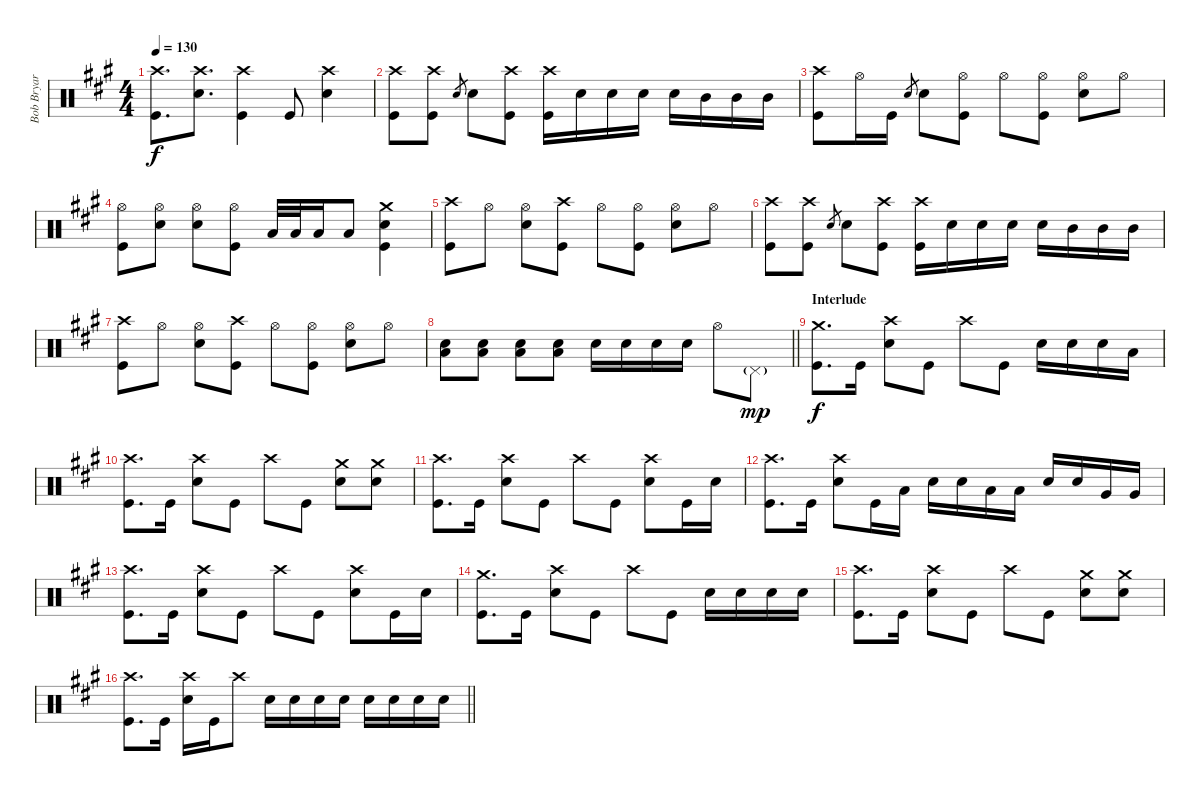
\track ("Bob Bryar" "Bob Bryar") {instrument percussion}
\staff {score}
\articulation defaults
\ts (4 4)
\tempo 130
\clef neutral
\ks a
("Crash high (hit)" "Kick (hit)").8{d dy f} ("Crash high (hit)" "Snare (hit) 2").8{d} ("Crash high (hit)" "Kick (hit)").4 "Kick (hit)".8 ("Crash high (hit)" "Snare (hit) 2").4 |
("Crash high (hit)" "Kick (hit)").8 ("Crash high (hit)" "Kick (hit)").8 "Snare (hit) 2".8{gr} "Snare (hit) 2".8 ("Crash high (hit)" "Kick (hit)").8 ("Crash high (hit)" "Kick (hit)").16 "Snare (hit) 2".16 "Snare (hit) 2".16 "Snare (hit) 2".16 "Snare (hit) 2".16 "Mid Tom (hit)".16 "Mid Tom (hit)".16 "Mid Tom (hit)".16 |
("Crash high (hit)" "Kick (hit)").8 "Hi-Hat (open)".16 "Kick (hit)".16 "Snare (hit) 2".8{gr} "Snare (hit) 2".8 ("Hi-Hat (open)" "Kick (hit)").8 "Hi-Hat (open)".8 ("Hi-Hat (open)" "Kick (hit)").8 ("Hi-Hat (open)" "Snare (hit) 2").8 "Hi-Hat (open)".8 |
("Hi-Hat (open)" "Kick (hit)").8 ("Hi-Hat (open)" "Snare (hit) 2").8 ("Hi-Hat (open)" "Snare (hit) 2").8 ("Hi-Hat (open)" "Kick (hit)").8 "Low Tom (hit)".32 "Low Tom (hit)".32 "Low Tom (hit)".16 "Low Tom (hit)".8 ("Crash medium (hit)" "Snare (hit) 2" "Kick (hit)").4 |
("Crash high (hit)" "Kick (hit)").8 "Hi-Hat (open)".8 ("Hi-Hat (open)" "Snare (hit) 2").8 ("Crash high (hit)" "Kick (hit)").8 "Hi-Hat (open)".8 ("Hi-Hat (open)" "Kick (hit)").8 ("Hi-Hat (open)" "Snare (hit) 2").8 "Hi-Hat (open)".8 |
("Crash high (hit)" "Kick (hit)").8 ("Crash high (hit)" "Kick (hit)").8 "Snare (hit) 2".8{gr} "Snare (hit) 2".8 ("Crash high (hit)" "Kick (hit)").8 ("Crash high (hit)" "Kick (hit)").16 "Snare (hit) 2".16 "Snare (hit) 2".16 "Snare (hit) 2".16 "Snare (hit) 2".16 "Mid Tom (hit)".16 "Mid Tom (hit)".16 "Mid Tom (hit)".16 |
("Crash high (hit)" "Kick (hit)").8 "Hi-Hat (open)".8 ("Hi-Hat (open)" "Snare (hit) 2").8 ("Crash high (hit)" "Kick (hit)").8 "Hi-Hat (open)".8 ("Hi-Hat (open)" "Kick (hit)").8 ("Hi-Hat (open)" "Snare (hit) 2").8 "Hi-Hat (open)".8 |
\barLineRight lightlight
("Low Floor Tom (hit)" "Snare (hit) 2").8 ("Low Floor Tom (hit)" "Snare (hit) 2").8 ("Low Floor Tom (hit)" "Snare (hit) 2").8 ("Low Floor Tom (hit)" "Snare (hit) 2").8 "Snare (hit) 2".16 "Snare (hit) 2".16 "Snare (hit) 2".16 "Snare (hit) 2".16 "Hi-Hat (open)".8 "Pedal Hi-Hat (hit)"{g}.8{dy mp} |
\section ("" "Interlude")
("Crash medium (hit)" "Kick (hit)").8{d dy f} "Kick (hit)".16 ("Crash high (hit)" "Snare (hit) 2").8 "Kick (hit)".8 "Crash high (hit)".8 "Kick (hit)".8 "Snare (hit) 2".16 "Snare (hit) 2".16 "Snare (hit) 2".16 "Low Tom (hit)".16 |
("Crash high (hit)" "Kick (hit)").8{d} "Kick (hit)".16 ("Crash high (hit)" "Snare (hit) 2").8 "Kick (hit)".8 "Crash high (hit)".8 "Kick (hit)".8 ("Crash medium (hit)" "Snare (hit) 2").8 ("Crash medium (hit)" "Snare (hit) 2").8 |
("Crash high (hit)" "Kick (hit)").8{d} "Kick (hit)".16 ("Crash high (hit)" "Snare (hit) 2").8 "Kick (hit)".8 "Crash high (hit)".8 "Kick (hit)".8 ("Crash high (hit)" "Snare (hit) 2").8 "Kick (hit)".16 "Snare (hit) 2".16 |
("Crash high (hit)" "Kick (hit)").8{d} "Kick (hit)".16 ("Crash high (hit)" "Snare (hit) 2").8 "Kick (hit)".16 "Low Tom (hit)".16 "Snare (hit) 2".16 "Snare (hit) 2".16 "Low Tom (hit)".16 "Low Tom (hit)".16 "Snare (hit) 2".16 "Snare (hit) 2".16 "Very Low Tom (hit)".16 "Very Low Tom (hit)".16 |
("Crash high (hit)" "Kick (hit)").8{d} "Kick (hit)".16 ("Crash high (hit)" "Snare (hit) 2").8 "Kick (hit)".8 "Crash high (hit)".8 "Kick (hit)".8 ("Crash high (hit)" "Snare (hit) 2").8 "Kick (hit)".16 "Snare (hit) 2".16 |
("Crash medium (hit)" "Kick (hit)").8{d} "Kick (hit)".16 ("Crash high (hit)" "Snare (hit) 2").8 "Kick (hit)".8 "Crash high (hit)".8 "Kick (hit)".8 "Snare (hit) 2".16 "Snare (hit) 2".16 "Snare (hit) 2".16 "Snare (hit) 2".16 |
("Crash high (hit)" "Kick (hit)").8{d} "Kick (hit)".16 ("Crash high (hit)" "Snare (hit) 2").8 "Kick (hit)".8 "Crash high (hit)".8 "Kick (hit)".8 ("Crash medium (hit)" "Snare (hit) 2").8 ("Crash medium (hit)" "Snare (hit) 2").8 |
\barLineRight lightlight
("Crash high (hit)" "Kick (hit)").8{d} "Kick (hit)".16 ("Crash high (hit)" "Snare (hit) 2").16 "Kick (hit)".16 "Crash high (hit)".8 "Snare (hit) 2".16 "Snare (hit) 2".16 "Snare (hit) 2".16 "Snare (hit) 2".16 "Snare (hit) 2".16 "Snare (hit) 2".16 "Snare (hit) 2".16 "Snare (hit) 2".16
